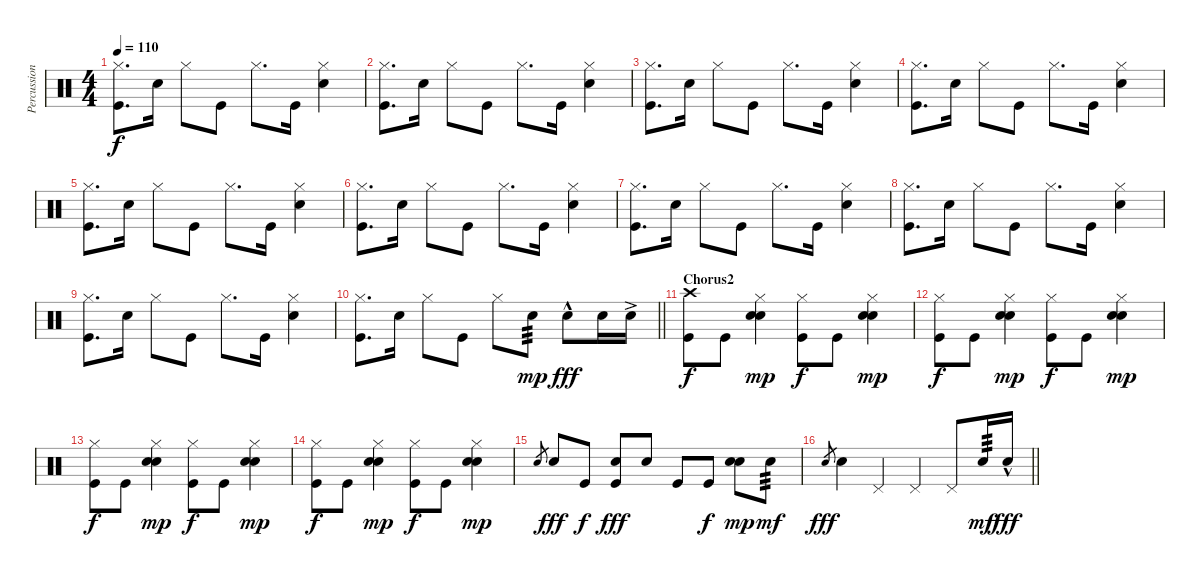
\track ("Percussion" "Percussion") {instrument percussion}
\staff {score}
\articulation defaults
\ts (4 4)
\tempo 110
\clef neutral
\ks c
("Hi-Hat (closed)" "Kick (hit)").8{d dy f} "Snare (hit) 2".16 "Hi-Hat (closed)".8 "Kick (hit)".8 "Hi-Hat (closed)".8{d} "Kick (hit)".16 ("Hi-Hat (closed)" "Snare (hit) 2").4 |
("Hi-Hat (closed)" "Kick (hit)").8{d} "Snare (hit) 2".16 "Hi-Hat (closed)".8 "Kick (hit)".8 "Hi-Hat (closed)".8{d} "Kick (hit)".16 ("Hi-Hat (closed)" "Snare (hit) 2").4 |
("Hi-Hat (closed)" "Kick (hit)").8{d} "Snare (hit) 2".16 "Hi-Hat (closed)".8 "Kick (hit)".8 "Hi-Hat (closed)".8{d} "Kick (hit)".16 ("Hi-Hat (closed)" "Snare (hit) 2").4 |
("Hi-Hat (closed)" "Kick (hit)").8{d} "Snare (hit) 2".16 "Hi-Hat (closed)".8 "Kick (hit)".8 "Hi-Hat (closed)".8{d} "Kick (hit)".16 ("Hi-Hat (closed)" "Snare (hit) 2").4 |
("Hi-Hat (closed)" "Kick (hit)").8{d} "Snare (hit) 2".16 "Hi-Hat (closed)".8 "Kick (hit)".8 "Hi-Hat (closed)".8{d} "Kick (hit)".16 ("Hi-Hat (closed)" "Snare (hit) 2").4 |
("Hi-Hat (closed)" "Kick (hit)").8{d} "Snare (hit) 2".16 "Hi-Hat (closed)".8 "Kick (hit)".8 "Hi-Hat (closed)".8{d} "Kick (hit)".16 ("Hi-Hat (closed)" "Snare (hit) 2").4 |
("Hi-Hat (closed)" "Kick (hit)").8{d} "Snare (hit) 2".16 "Hi-Hat (closed)".8 "Kick (hit)".8 "Hi-Hat (closed)".8{d} "Kick (hit)".16 ("Hi-Hat (closed)" "Snare (hit) 2").4 |
("Hi-Hat (closed)" "Kick (hit)").8{d} "Snare (hit) 2".16 "Hi-Hat (closed)".8 "Kick (hit)".8 "Hi-Hat (closed)".8{d} "Kick (hit)".16 ("Hi-Hat (closed)" "Snare (hit) 2").4 |
("Hi-Hat (closed)" "Kick (hit)").8{d} "Snare (hit) 2".16 "Hi-Hat (closed)".8 "Kick (hit)".8 "Hi-Hat (closed)".8{d} "Kick (hit)".16 ("Hi-Hat (closed)" "Snare (hit) 2").4 |
\barLineRight lightlight
("Hi-Hat (closed)" "Kick (hit)").8{d} "Snare (hit) 2".16 "Hi-Hat (closed)".8 "Kick (hit)".8 "Hi-Hat (closed)".8 "Snare (hit) 2".8{tp 3 dy mp} "Snare (hit) 2"{hac}.8{dy fff} "Snare (hit) 2".16 "Snare (hit) 2"{ac}.16 |
\section ("" "Chorus2")
("Crash high (hit)" "Kick (hit)").8{dy f} "Kick (hit)".8 ("Hi-Hat (closed)" "Snare (hit) 2" "Hand Clap (hit)").4{dy mp} ("Hi-Hat (closed)" "Kick (hit)").8{dy f} "Kick (hit)".8 ("Hi-Hat (closed)" "Snare (hit) 2" "Hand Clap (hit)").4{dy mp} |
("Hi-Hat (closed)" "Kick (hit)").8{dy f} "Kick (hit)".8 ("Hi-Hat (closed)" "Snare (hit) 2" "Hand Clap (hit)").4{dy mp} ("Hi-Hat (closed)" "Kick (hit)").8{dy f} "Kick (hit)".8 ("Hi-Hat (closed)" "Snare (hit) 2" "Hand Clap (hit)").4{dy mp} |
("Hi-Hat (closed)" "Kick (hit)").8{dy f} "Kick (hit)".8 ("Hi-Hat (closed)" "Snare (hit) 2" "Hand Clap (hit)").4{dy mp} ("Hi-Hat (closed)" "Kick (hit)").8{dy f} "Kick (hit)".8 ("Hi-Hat (closed)" "Snare (hit) 2" "Hand Clap (hit)").4{dy mp} |
("Hi-Hat (closed)" "Kick (hit)").8{dy f} "Kick (hit)".8 ("Hi-Hat (closed)" "Snare (hit) 2" "Hand Clap (hit)").4{dy mp} ("Hi-Hat (closed)" "Kick (hit)").8{dy f} "Kick (hit)".8 ("Hi-Hat (closed)" "Snare (hit) 2" "Hand Clap (hit)").4{dy mp} |
"Snare (hit) 2".8{gr} "Snare (hit) 2".8{dy fff} "Kick (hit)".8{dy f} ("Hand Clap (hit)" "Kick (hit)").8{dy fff} "Snare (hit) 2".8 "Kick (hit)".8 "Kick (hit)".8{dy f} ("Hand Clap (hit)" "Snare (hit) 2").8{dy mp} "Snare (hit) 2".8{tp 3 dy mf} |
\barLineRight lightlight "Snare (hit) 2".8{gr dy fff} "Snare (hit) 2".4 "Pedal Hi-Hat (hit)".4 "Pedal Hi-Hat (hit)".4 "Pedal Hi-Hat (hit)".8 "Snare (hit) 2".16{tp 3 dy mf} "Snare (hit) 2"{hac}.16{dy fff}
